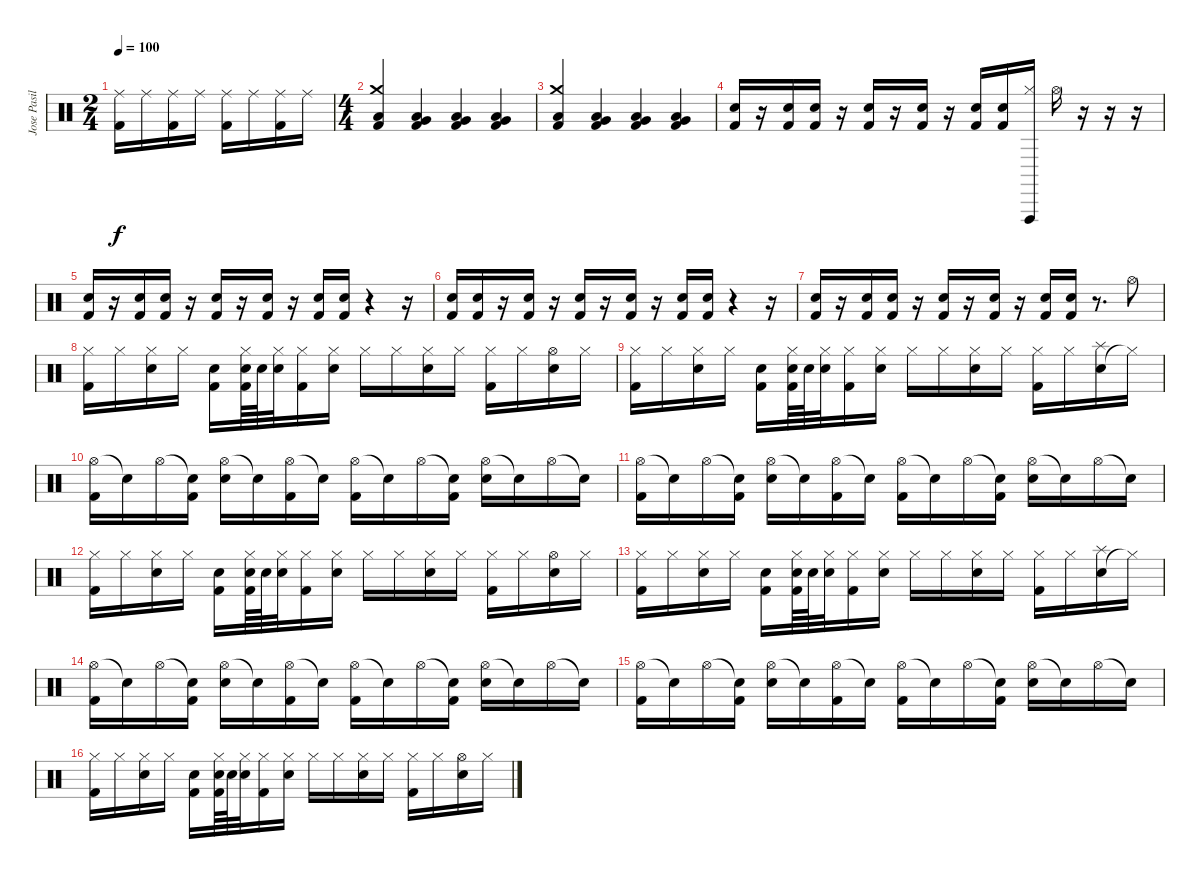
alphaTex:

\track ("Jose Pasillas" "Jose Pasil") {instrument percussion}
\staff {score}
\articulation defaults
\ts (2 4)
\tempo 100
\clef neutral
\ks c
("Ride (middle)" "Kick (hit) 2").16{dy f} "Ride (middle)".16 ("Ride (middle)" "Kick (hit) 2").16 "Ride (middle)".16 ("Ride (middle)" "Kick (hit) 2").16 "Ride (middle)".16 ("Ride (middle)" "Kick (hit) 2").16 "Ride (middle)".16 |
\ts (4 4)
("Kick (hit) 2" "Crash medium (hit)" "Low Floor Tom (hit)").4 ("Kick (hit) 2" "Very Low Tom (hit)" "Low Floor Tom (hit)").4 ("Kick (hit) 2" "Very Low Tom (hit)" "Low Floor Tom (hit)").4 ("Kick (hit) 2" "Very Low Tom (hit)" "Low Floor Tom (hit)").4 |
("Kick (hit) 2" "Crash medium (hit)" "Low Floor Tom (hit)").4 ("Kick (hit) 2" "Very Low Tom (hit)" "Low Floor Tom (hit)").4 ("Kick (hit) 2" "Very Low Tom (hit)" "Low Floor Tom (hit)").4 ("Kick (hit) 2" "Very Low Tom (hit)" "Low Floor Tom (hit)").4 |
("Electric Snare (hit)" "Kick (hit) 2").16 r.16 ("Electric Snare (hit)" "Kick (hit) 2").16 ("Electric Snare (hit)" "Kick (hit) 2").16 r.16 ("Electric Snare (hit)" "Kick (hit) 2").16 r.16 ("Electric Snare (hit)" "Kick (hit) 2").16 r.16 ("Electric Snare (hit)" "Kick (hit) 2").16 ("Electric Snare (hit)" "Kick (hit) 2").16 ("Vibraslap (hit)" "Hi-Hat (closed)").16 "Hi-Hat (open)".16 r.16 r.16 r.16 |
("Electric Snare (hit)" "Kick (hit) 2").16 r.16 ("Electric Snare (hit)" "Kick (hit) 2").16 ("Electric Snare (hit)" "Kick (hit) 2").16 r.16 ("Electric Snare (hit)" "Kick (hit) 2").16 r.16 ("Electric Snare (hit)" "Kick (hit) 2").16 r.16 ("Electric Snare (hit)" "Kick (hit) 2").16 ("Electric Snare (hit)" "Kick (hit) 2").16 r.4 r.16 |
("Electric Snare (hit)" "Kick (hit) 2").16 ("Kick (hit) 2" "Electric Snare (hit)").16 r.16 ("Kick (hit) 2" "Electric Snare (hit)").16 r.16 ("Kick (hit) 2" "Electric Snare (hit)").16 r.16 ("Kick (hit) 2" "Electric Snare (hit)").16 r.16 ("Kick (hit) 2" "Electric Snare (hit)").16 ("Kick (hit) 2" "Electric Snare (hit)").16 r.4 r.16 |
("Electric Snare (hit)" "Kick (hit) 2").16 r.16 ("Electric Snare (hit)" "Kick (hit) 2").16 ("Electric Snare (hit)" "Kick (hit) 2").16 r.16 ("Electric Snare (hit)" "Kick (hit) 2").16 r.16 ("Electric Snare (hit)" "Kick (hit) 2").16 r.16 ("Electric Snare (hit)" "Kick (hit) 2").16 ("Electric Snare (hit)" "Kick (hit) 2").16 r.8{d} "Hi-Hat (open)".8 |
("Hi-Hat (closed)" "Kick (hit) 2").16 "Hi-Hat (closed)".16 ("Electric Snare (hit)" "Hi-Hat (closed)").16 "Hi-Hat (closed)".16 ("Electric Snare (hit)" "Kick (hit) 2").16 ("Kick (hit) 2" "Electric Snare (hit)" "Hi-Hat (closed)").64 "Electric Snare (hit)".64 ("Electric Snare (hit)" "Hi-Hat (closed)").32 ("Hi-Hat (closed)" "Kick (hit) 2").16 ("Electric Snare (hit)" "Hi-Hat (closed)").16 "Hi-Hat (closed)".16 "Hi-Hat (closed)".16 ("Electric Snare (hit)" "Hi-Hat (closed)").16 "Hi-Hat (closed)".16 ("Hi-Hat (closed)" "Kick (hit) 2").16 "Hi-Hat (closed)".16 ("Electric Snare (hit)" "Hi-Hat (open)").16 "Hi-Hat (closed)".16 |
("Hi-Hat (closed)" "Kick (hit) 2").16 "Hi-Hat (closed)".16 ("Electric Snare (hit)" "Hi-Hat (closed)").16 "Hi-Hat (closed)".16 ("Electric Snare (hit)" "Kick (hit) 2").16 ("Kick (hit) 2" "Electric Snare (hit)" "Hi-Hat (closed)").64 "Electric Snare (hit)".64 ("Electric Snare (hit)" "Hi-Hat (closed)").32 ("Hi-Hat (closed)" "Kick (hit) 2").16 ("Electric Snare (hit)" "Hi-Hat (closed)").16 "Hi-Hat (closed)".16 "Hi-Hat (closed)".16 ("Electric Snare (hit)" "Hi-Hat (closed)").16 "Hi-Hat (closed)".16 ("Hi-Hat (closed)" "Kick (hit) 2").16 "Hi-Hat (closed)".16 ("Electric Snare (hit)" "Splash (hit)").16 "Hi-Hat (closed)"{t}.16 |
("Hi-Hat (open)" "Kick (hit) 2").16 "Snare (hit)"{t}.16 "Hi-Hat (open)".16 ("Snare (hit)"{t} "Kick (hit) 2").16 ("Hi-Hat (open)" "Electric Snare (hit)").16 "Snare (hit)"{t}.16 ("Hi-Hat (open)" "Kick (hit) 2").16 "Snare (hit)"{t}.16 ("Hi-Hat (open)" "Kick (hit) 2").16 "Snare (hit)"{t}.16 "Hi-Hat (open)".16 ("Snare (hit)"{t} "Kick (hit) 2").16 ("Hi-Hat (open)" "Electric Snare (hit)").16 "Snare (hit)"{t}.16 "Hi-Hat (open)".16 "Snare (hit)"{t}.16 |
("Hi-Hat (open)" "Kick (hit) 2").16 "Snare (hit)"{t}.16 "Hi-Hat (open)".16 ("Snare (hit)"{t} "Kick (hit) 2").16 ("Hi-Hat (open)" "Electric Snare (hit)").16 "Snare (hit)"{t}.16 ("Hi-Hat (open)" "Kick (hit) 2").16 "Snare (hit)"{t}.16 ("Hi-Hat (open)" "Kick (hit) 2").16 "Snare (hit)"{t}.16 "Hi-Hat (open)".16 ("Snare (hit)"{t} "Kick (hit) 2").16 ("Hi-Hat (open)" "Electric Snare (hit)").16 "Snare (hit)"{t}.16 "Hi-Hat (open)".16 "Snare (hit)"{t}.16 |
("Hi-Hat (closed)" "Kick (hit) 2").16 "Hi-Hat (closed)".16 ("Electric Snare (hit)" "Hi-Hat (closed)").16 "Hi-Hat (closed)".16 ("Electric Snare (hit)" "Kick (hit) 2").16 ("Kick (hit) 2" "Electric Snare (hit)" "Hi-Hat (closed)").64 "Electric Snare (hit)".64 ("Electric Snare (hit)" "Hi-Hat (closed)").32 ("Hi-Hat (closed)" "Kick (hit) 2").16 ("Electric Snare (hit)" "Hi-Hat (closed)").16 "Hi-Hat (closed)".16 "Hi-Hat (closed)".16 ("Electric Snare (hit)" "Hi-Hat (closed)").16 "Hi-Hat (closed)".16 ("Hi-Hat (closed)" "Kick (hit) 2").16 "Hi-Hat (closed)".16 ("Electric Snare (hit)" "Hi-Hat (open)").16 "Hi-Hat (closed)".16 |
("Hi-Hat (closed)" "Kick (hit) 2").16 "Hi-Hat (closed)".16 ("Electric Snare (hit)" "Hi-Hat (closed)").16 "Hi-Hat (closed)".16 ("Electric Snare (hit)" "Kick (hit) 2").16 ("Kick (hit) 2" "Electric Snare (hit)" "Hi-Hat (closed)").64 "Electric Snare (hit)".64 ("Electric Snare (hit)" "Hi-Hat (closed)").32 ("Hi-Hat (closed)" "Kick (hit) 2").16 ("Electric Snare (hit)" "Hi-Hat (closed)").16 "Hi-Hat (closed)".16 "Hi-Hat (closed)".16 ("Electric Snare (hit)" "Hi-Hat (closed)").16 "Hi-Hat (closed)".16 ("Hi-Hat (closed)" "Kick (hit) 2").16 "Hi-Hat (closed)".16 ("Electric Snare (hit)" "Splash (hit)").16 "Hi-Hat (closed)"{t}.16 |
("Hi-Hat (open)" "Kick (hit) 2").16 "Snare (hit)"{t}.16 "Hi-Hat (open)".16 ("Snare (hit)"{t} "Kick (hit) 2").16 ("Hi-Hat (open)" "Electric Snare (hit)").16 "Snare (hit)"{t}.16 ("Hi-Hat (open)" "Kick (hit) 2").16 "Snare (hit)"{t}.16 ("Hi-Hat (open)" "Kick (hit) 2").16 "Snare (hit)"{t}.16 "Hi-Hat (open)".16 ("Snare (hit)"{t} "Kick (hit) 2").16 ("Hi-Hat (open)" "Electric Snare (hit)").16 "Snare (hit)"{t}.16 "Hi-Hat (open)".16 "Snare (hit)"{t}.16 |
("Hi-Hat (open)" "Kick (hit) 2").16 "Snare (hit)"{t}.16 "Hi-Hat (open)".16 ("Snare (hit)"{t} "Kick (hit) 2").16 ("Hi-Hat (open)" "Electric Snare (hit)").16 "Snare (hit)"{t}.16 ("Hi-Hat (open)" "Kick (hit) 2").16 "Snare (hit)"{t}.16 ("Hi-Hat (open)" "Kick (hit) 2").16 "Snare (hit)"{t}.16 "Hi-Hat (open)".16 ("Snare (hit)"{t} "Kick (hit) 2").16 ("Hi-Hat (open)" "Electric Snare (hit)").16 "Snare (hit)"{t}.16 "Hi-Hat (open)".16 "Snare (hit)"{t}.16 |
("Hi-Hat (closed)" "Kick (hit) 2").16 "Hi-Hat (closed)".16 ("Electric Snare (hit)" "Hi-Hat (closed)").16 "Hi-Hat (closed)".16 ("Electric Snare (hit)" "Kick (hit) 2").16 ("Kick (hit) 2" "Electric Snare (hit)" "Hi-Hat (closed)").64 "Electric Snare (hit)".64 ("Electric Snare (hit)" "Hi-Hat (closed)").32 ("Hi-Hat (closed)" "Kick (hit) 2").16 ("Electric Snare (hit)" "Hi-Hat (closed)").16 "Hi-Hat (closed)".16 "Hi-Hat (closed)".16 ("Electric Snare (hit)" "Hi-Hat (closed)").16 "Hi-Hat (closed)".16 ("Hi-Hat (closed)" "Kick (hit) 2").16 "Hi-Hat (closed)".16 ("Electric Snare (hit)" "Hi-Hat (open)").16 "Hi-Hat (closed)".16
